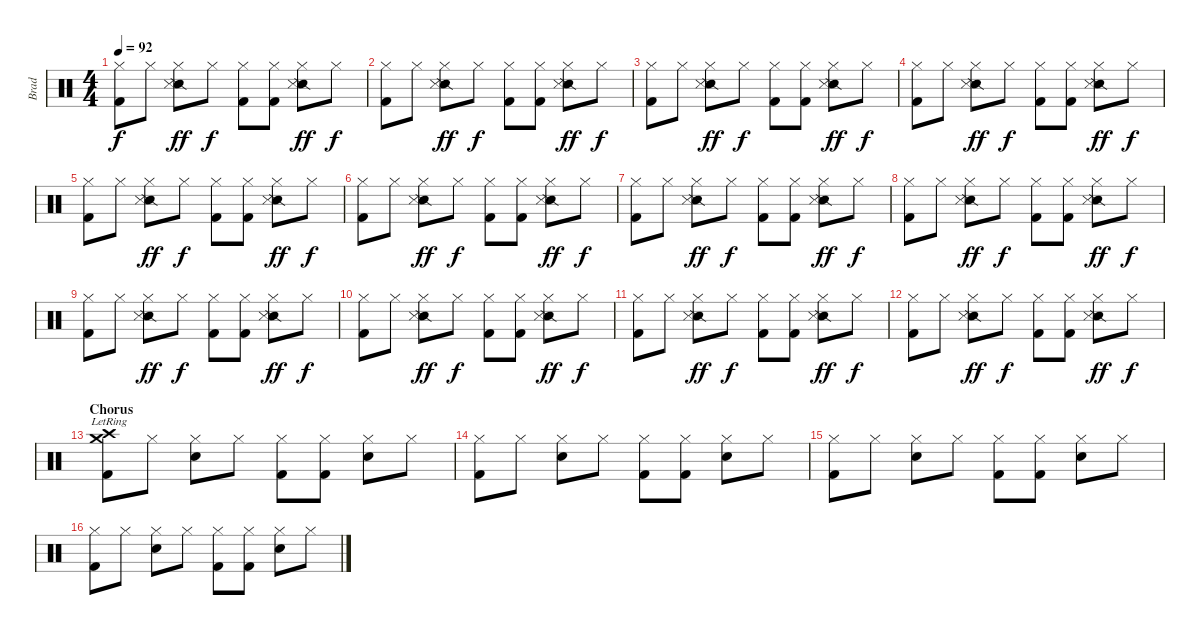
\track ("Brad" "Brad") {instrument percussion}
\staff {score}
\articulation defaults
\ts (4 4)
\tempo 92
\clef neutral
\ks c
("Hi-Hat (closed)" "Kick (hit) 2").8{dy f} "Hi-Hat (closed)".8 ("Hi-Hat (closed)" "Snare (side stick) 2" "Snare (side stick) 3").8{dy ff} "Hi-Hat (closed)".8{dy f} ("Hi-Hat (closed)" "Kick (hit) 2").8 ("Hi-Hat (closed)" "Kick (hit) 2").8 ("Hi-Hat (closed)" "Snare (side stick) 2" "Snare (side stick) 3").8{dy ff} "Hi-Hat (closed)".8{dy f} |
("Hi-Hat (closed)" "Kick (hit) 2").8 "Hi-Hat (closed)".8 ("Hi-Hat (closed)" "Snare (side stick) 2" "Snare (side stick) 3").8{dy ff} "Hi-Hat (closed)".8{dy f} ("Hi-Hat (closed)" "Kick (hit) 2").8 ("Hi-Hat (closed)" "Kick (hit) 2").8 ("Hi-Hat (closed)" "Snare (side stick) 2" "Snare (side stick) 3").8{dy ff} "Hi-Hat (closed)".8{dy f} |
("Hi-Hat (closed)" "Kick (hit) 2").8 "Hi-Hat (closed)".8 ("Hi-Hat (closed)" "Snare (side stick) 2" "Snare (side stick) 3").8{dy ff} "Hi-Hat (closed)".8{dy f} ("Hi-Hat (closed)" "Kick (hit) 2").8 ("Hi-Hat (closed)" "Kick (hit) 2").8 ("Hi-Hat (closed)" "Snare (side stick) 2" "Snare (side stick) 3").8{dy ff} "Hi-Hat (closed)".8{dy f} |
("Hi-Hat (closed)" "Kick (hit) 2").8 "Hi-Hat (closed)".8 ("Hi-Hat (closed)" "Snare (side stick) 2" "Snare (side stick) 3").8{dy ff} "Hi-Hat (closed)".8{dy f} ("Hi-Hat (closed)" "Kick (hit) 2").8 ("Hi-Hat (closed)" "Kick (hit) 2").8 ("Hi-Hat (closed)" "Snare (side stick) 2" "Snare (side stick) 3").8{dy ff} "Hi-Hat (closed)".8{dy f} |
("Hi-Hat (closed)" "Kick (hit) 2").8 "Hi-Hat (closed)".8 ("Hi-Hat (closed)" "Snare (side stick) 2" "Snare (side stick) 3").8{dy ff} "Hi-Hat (closed)".8{dy f} ("Hi-Hat (closed)" "Kick (hit) 2").8 ("Hi-Hat (closed)" "Kick (hit) 2").8 ("Hi-Hat (closed)" "Snare (side stick) 2" "Snare (side stick) 3").8{dy ff} "Hi-Hat (closed)".8{dy f} |
("Hi-Hat (closed)" "Kick (hit) 2").8 "Hi-Hat (closed)".8 ("Hi-Hat (closed)" "Snare (side stick) 2" "Snare (side stick) 3").8{dy ff} "Hi-Hat (closed)".8{dy f} ("Hi-Hat (closed)" "Kick (hit) 2").8 ("Hi-Hat (closed)" "Kick (hit) 2").8 ("Hi-Hat (closed)" "Snare (side stick) 2" "Snare (side stick) 3").8{dy ff} "Hi-Hat (closed)".8{dy f} |
("Hi-Hat (closed)" "Kick (hit) 2").8 "Hi-Hat (closed)".8 ("Hi-Hat (closed)" "Snare (side stick) 2" "Snare (side stick) 3").8{dy ff} "Hi-Hat (closed)".8{dy f} ("Hi-Hat (closed)" "Kick (hit) 2").8 ("Hi-Hat (closed)" "Kick (hit) 2").8 ("Hi-Hat (closed)" "Snare (side stick) 2" "Snare (side stick) 3").8{dy ff} "Hi-Hat (closed)".8{dy f} |
("Hi-Hat (closed)" "Kick (hit) 2").8 "Hi-Hat (closed)".8 ("Hi-Hat (closed)" "Snare (side stick) 2" "Snare (side stick) 3").8{dy ff} "Hi-Hat (closed)".8{dy f} ("Hi-Hat (closed)" "Kick (hit) 2").8 ("Hi-Hat (closed)" "Kick (hit) 2").8 ("Hi-Hat (closed)" "Snare (side stick) 2" "Snare (side stick) 3").8{dy ff} "Hi-Hat (closed)".8{dy f} |
("Hi-Hat (closed)" "Kick (hit) 2").8 "Hi-Hat (closed)".8 ("Hi-Hat (closed)" "Snare (side stick) 2" "Snare (side stick) 3").8{dy ff} "Hi-Hat (closed)".8{dy f} ("Hi-Hat (closed)" "Kick (hit) 2").8 ("Hi-Hat (closed)" "Kick (hit) 2").8 ("Hi-Hat (closed)" "Snare (side stick) 2" "Snare (side stick) 3").8{dy ff} "Hi-Hat (closed)".8{dy f} |
("Hi-Hat (closed)" "Kick (hit) 2").8 "Hi-Hat (closed)".8 ("Hi-Hat (closed)" "Snare (side stick) 2" "Snare (side stick) 3").8{dy ff} "Hi-Hat (closed)".8{dy f} ("Hi-Hat (closed)" "Kick (hit) 2").8 ("Hi-Hat (closed)" "Kick (hit) 2").8 ("Hi-Hat (closed)" "Snare (side stick) 2" "Snare (side stick) 3").8{dy ff} "Hi-Hat (closed)".8{dy f} |
("Hi-Hat (closed)" "Kick (hit) 2").8 "Hi-Hat (closed)".8 ("Hi-Hat (closed)" "Snare (side stick) 2" "Snare (side stick) 3").8{dy ff} "Hi-Hat (closed)".8{dy f} ("Hi-Hat (closed)" "Kick (hit) 2").8 ("Hi-Hat (closed)" "Kick (hit) 2").8 ("Hi-Hat (closed)" "Snare (side stick) 2" "Snare (side stick) 3").8{dy ff} "Hi-Hat (closed)".8{dy f} |
("Hi-Hat (closed)" "Kick (hit) 2").8 "Hi-Hat (closed)".8 ("Hi-Hat (closed)" "Snare (side stick) 2" "Snare (side stick) 3").8{dy ff} "Hi-Hat (closed)".8{dy f} ("Hi-Hat (closed)" "Kick (hit) 2").8 ("Hi-Hat (closed)" "Kick (hit) 2").8 ("Hi-Hat (closed)" "Snare (side stick) 2" "Snare (side stick) 3").8{dy ff} "Hi-Hat (closed)".8{dy f} |
\section ("" "Chorus")
("Crash high (hit)"{lr} "Crash medium (hit)"{lr} "Kick (hit) 2").8 "Hi-Hat (closed)".8 ("Hi-Hat (closed)" "Electric Snare (hit)").8 "Hi-Hat (closed)".8 ("Hi-Hat (closed)" "Kick (hit) 2").8 ("Hi-Hat (closed)" "Kick (hit) 2").8 ("Hi-Hat (closed)" "Electric Snare (hit)").8 "Hi-Hat (closed)".8 |
("Hi-Hat (closed)" "Kick (hit) 2").8 "Hi-Hat (closed)".8 ("Hi-Hat (closed)" "Electric Snare (hit)").8 "Hi-Hat (closed)".8 ("Hi-Hat (closed)" "Kick (hit) 2").8 ("Hi-Hat (closed)" "Kick (hit) 2").8 ("Hi-Hat (closed)" "Electric Snare (hit)").8 "Hi-Hat (closed)".8 |
("Hi-Hat (closed)" "Kick (hit) 2").8 "Hi-Hat (closed)".8 ("Hi-Hat (closed)" "Electric Snare (hit)").8 "Hi-Hat (closed)".8 ("Hi-Hat (closed)" "Kick (hit) 2").8 ("Hi-Hat (closed)" "Kick (hit) 2").8 ("Hi-Hat (closed)" "Electric Snare (hit)").8 "Hi-Hat (closed)".8 |
("Hi-Hat (closed)" "Kick (hit) 2").8 "Hi-Hat (closed)".8 ("Hi-Hat (closed)" "Electric Snare (hit)").8 "Hi-Hat (closed)".8 ("Hi-Hat (closed)" "Kick (hit) 2").8 ("Hi-Hat (closed)" "Kick (hit) 2").8 ("Hi-Hat (closed)" "Electric Snare (hit)").8 "Hi-Hat (closed)".8
